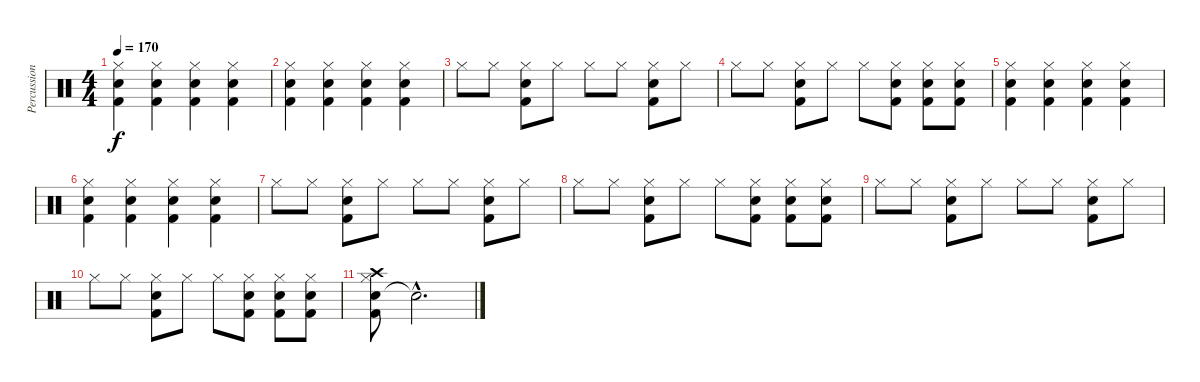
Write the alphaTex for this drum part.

\track ("Percussion" "Percussion") {instrument percussion}
\staff {score}
\articulation defaults
\ts (4 4)
\tempo 170
\clef neutral
\ks c
("Electric Snare (hit)" "Kick (hit) 2" "Hi-Hat (closed)").4{dy f} ("Electric Snare (hit)" "Kick (hit) 2" "Hi-Hat (closed)").4 ("Electric Snare (hit)" "Kick (hit) 2" "Hi-Hat (closed)").4 ("Electric Snare (hit)" "Kick (hit) 2" "Hi-Hat (closed)").4 |
("Electric Snare (hit)" "Hi-Hat (closed)" "Kick (hit) 2").4 ("Electric Snare (hit)" "Hi-Hat (closed)" "Kick (hit) 2").4 ("Electric Snare (hit)" "Hi-Hat (closed)" "Kick (hit) 2").4 ("Electric Snare (hit)" "Hi-Hat (closed)" "Kick (hit) 2").4 |
"Hi-Hat (closed)".8 "Hi-Hat (closed)".8 ("Electric Snare (hit)" "Hi-Hat (closed)" "Kick (hit) 2").8 "Hi-Hat (closed)".8 "Hi-Hat (closed)".8 "Hi-Hat (closed)".8 ("Electric Snare (hit)" "Hi-Hat (closed)" "Kick (hit) 2").8 "Hi-Hat (closed)".8 |
"Hi-Hat (closed)".8 "Hi-Hat (closed)".8 ("Electric Snare (hit)" "Hi-Hat (closed)" "Kick (hit) 2").8 "Hi-Hat (closed)".8 "Hi-Hat (closed)".8 ("Electric Snare (hit)" "Hi-Hat (closed)" "Kick (hit) 2").8 ("Electric Snare (hit)" "Hi-Hat (closed)" "Kick (hit) 2").8 ("Electric Snare (hit)" "Hi-Hat (closed)" "Kick (hit) 2").8 |
("Electric Snare (hit)" "Kick (hit) 2" "Hi-Hat (closed)").4 ("Electric Snare (hit)" "Kick (hit) 2" "Hi-Hat (closed)").4 ("Electric Snare (hit)" "Kick (hit) 2" "Hi-Hat (closed)").4 ("Electric Snare (hit)" "Kick (hit) 2" "Hi-Hat (closed)").4 |
("Electric Snare (hit)" "Hi-Hat (closed)" "Kick (hit) 2").4 ("Electric Snare (hit)" "Hi-Hat (closed)" "Kick (hit) 2").4 ("Electric Snare (hit)" "Hi-Hat (closed)" "Kick (hit) 2").4 ("Electric Snare (hit)" "Hi-Hat (closed)" "Kick (hit) 2").4 |
"Hi-Hat (closed)".8 "Hi-Hat (closed)".8 ("Electric Snare (hit)" "Hi-Hat (closed)" "Kick (hit) 2").8 "Hi-Hat (closed)".8 "Hi-Hat (closed)".8 "Hi-Hat (closed)".8 ("Electric Snare (hit)" "Hi-Hat (closed)" "Kick (hit) 2").8 "Hi-Hat (closed)".8 |
"Hi-Hat (closed)".8 "Hi-Hat (closed)".8 ("Electric Snare (hit)" "Hi-Hat (closed)" "Kick (hit) 2").8 "Hi-Hat (closed)".8 "Hi-Hat (closed)".8 ("Electric Snare (hit)" "Hi-Hat (closed)" "Kick (hit) 2").8 ("Electric Snare (hit)" "Hi-Hat (closed)" "Kick (hit) 2").8 ("Electric Snare (hit)" "Hi-Hat (closed)" "Kick (hit) 2").8 |
"Hi-Hat (closed)".8 "Hi-Hat (closed)".8 ("Electric Snare (hit)" "Hi-Hat (closed)" "Kick (hit) 2").8 "Hi-Hat (closed)".8 "Hi-Hat (closed)".8 "Hi-Hat (closed)".8 ("Electric Snare (hit)" "Hi-Hat (closed)" "Kick (hit) 2").8 "Hi-Hat (closed)".8 |
"Hi-Hat (closed)".8 "Hi-Hat (closed)".8 ("Electric Snare (hit)" "Hi-Hat (closed)" "Kick (hit) 2").8 "Hi-Hat (closed)".8 "Hi-Hat (closed)".8 ("Electric Snare (hit)" "Hi-Hat (closed)" "Kick (hit) 2").8 ("Electric Snare (hit)" "Hi-Hat (closed)" "Kick (hit) 2").8 ("Electric Snare (hit)" "Hi-Hat (closed)" "Kick (hit) 2").8 |
("Electric Snare (hit)" "Hi-Hat (closed)" "Kick (hit) 2" "Crash high (hit)").8 "Snare (hit)"{hac t}.2{d}
